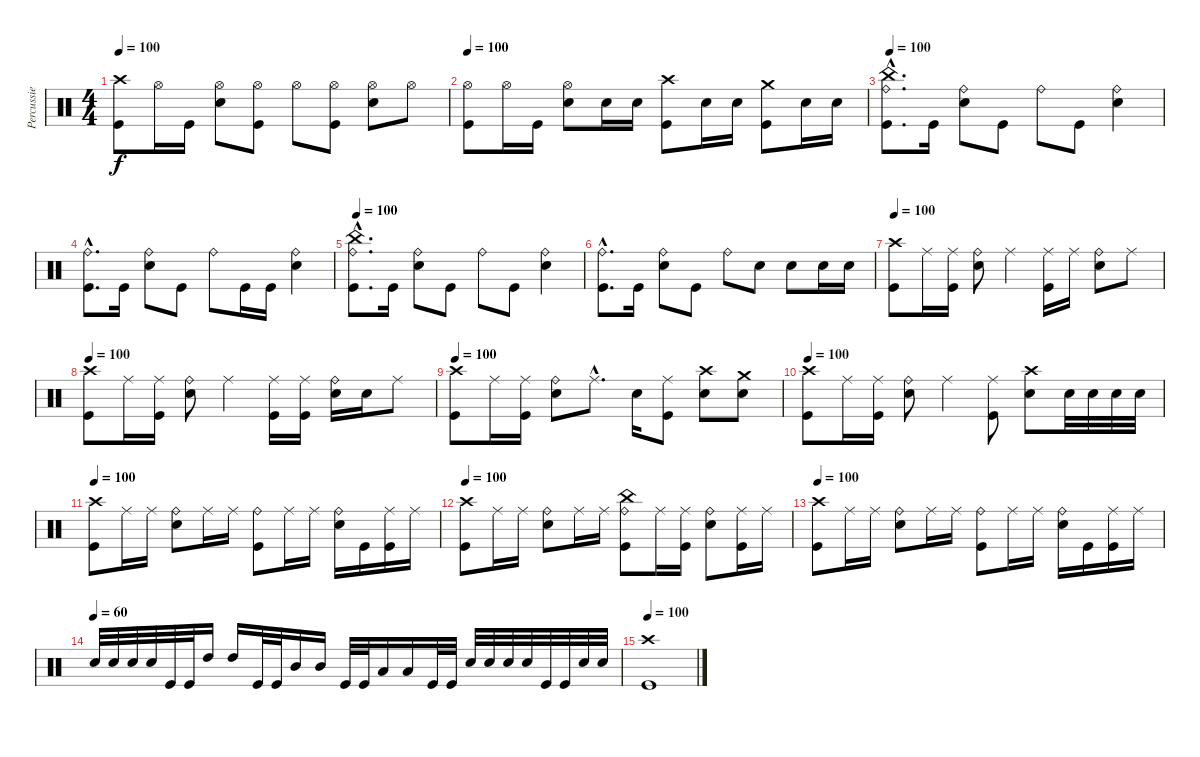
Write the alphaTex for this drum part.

\track ("Percussie" "Percussie") {instrument percussion}
\staff {score}
\articulation defaults
\ts (4 4)
\tempo 100
\clef neutral
\ks c
("Crash high (hit)" "Kick (hit)").8{dy f} "Hi-Hat (open)".16 "Kick (hit)".16 ("Hi-Hat (open)" "Snare (hit) 2").8 ("Hi-Hat (open)" "Kick (hit)").8 "Hi-Hat (open)".8 ("Hi-Hat (open)" "Kick (hit)").8 ("Hi-Hat (open)" "Snare (hit) 2").8 "Hi-Hat (open)".8 |
\tempo 100
("Hi-Hat (open)" "Kick (hit)").8 "Hi-Hat (open)".16 "Kick (hit)".16 ("Hi-Hat (open)" "Snare (hit) 2").8 "Snare (hit) 2".16 "Snare (hit) 2".16 ("Crash high (hit)" "Kick (hit)").8 "Snare (hit) 2".16 "Snare (hit) 2".16 ("Crash medium (hit)" "Kick (hit)").8 "Snare (hit) 2".16 "Snare (hit) 2".16 |
\tempo 100
("Ride (bell)"{hac} "China (hit)"{hac} "Kick (hit)"{hac}).8{d} "Kick (hit)".16 ("Ride (bell)" "Snare (hit) 2").8 "Kick (hit)".8 "Ride (bell)".8 "Kick (hit)".8 ("Ride (bell)" "Snare (hit) 2").4 |
("Ride (bell)"{hac} "Kick (hit)"{hac}).8{d} "Kick (hit)".16 ("Ride (bell)" "Snare (hit) 2").8 "Kick (hit)".8 "Ride (bell)".8 "Kick (hit)".16 "Kick (hit)".16 ("Ride (bell)" "Snare (hit) 2").4 |
\tempo 100
("Ride (bell)"{hac} "China (hit)"{hac} "Kick (hit)"{hac}).8{d} "Kick (hit)".16 ("Ride (bell)" "Snare (hit) 2").8 "Kick (hit)".8 "Ride (bell)".8 "Kick (hit)".8 ("Ride (bell)" "Snare (hit) 2").4 |
("Ride (bell)"{hac} "Kick (hit)"{hac}).8{d} "Kick (hit)".16 ("Ride (bell)" "Snare (hit) 2").8 "Kick (hit)".8 "Ride (bell)".8 "Snare (hit) 2".8 "Snare (hit) 2".8 "Snare (hit) 2".16 "Snare (hit) 2".16 |
\tempo 100
("Crash high (hit)" "Kick (hit)").8 "Ride (middle)".16 ("Ride (middle)" "Kick (hit)").16 ("Ride (bell)" "Snare (hit) 2").8 "Ride (middle)".4 ("Ride (middle)" "Kick (hit)").16 "Ride (middle)".16 ("Ride (bell)" "Snare (hit) 2").8 "Ride (middle)".8 |
\tempo 100
("Crash high (hit)" "Kick (hit)").8 "Ride (middle)".16 ("Ride (middle)" "Kick (hit)").16 ("Ride (bell)" "Snare (hit) 2").8 "Ride (middle)".4 ("Ride (middle)" "Kick (hit)").16 ("Ride (middle)" "Kick (hit)").16 ("Ride (bell)" "Snare (hit) 2").16 "Snare (hit) 2".16 "Ride (middle)".8 |
\tempo 100
("Crash high (hit)" "Kick (hit)").8 "Ride (middle)".16 ("Ride (middle)" "Kick (hit)").16 ("Ride (bell)" "Snare (hit) 2").8 "Ride (middle)"{hac}.8{d} "Snare (hit) 2".16 ("Ride (middle)" "Kick (hit)").8 ("Crash high (hit)" "Snare (hit) 2").8 ("Crash medium (hit)" "Snare (hit) 2").8 |
\tempo 100
("Crash high (hit)" "Kick (hit)").8 "Ride (middle)".16 ("Ride (middle)" "Kick (hit)").16 ("Ride (bell)" "Snare (hit) 2").8 "Ride (middle)".4 ("Ride (middle)" "Kick (hit)").8 ("Crash high (hit)" "Snare (hit) 2").8 "Snare (hit) 2".32 "Snare (hit) 2".32 "Snare (hit) 2".32 "Snare (hit) 2".32 |
\tempo 100
("Crash high (hit)" "Kick (hit)").8 "Ride (middle)".16 "Ride (middle)".16 ("Ride (bell)" "Snare (hit) 2").8 "Ride (middle)".16 "Ride (middle)".16 ("Ride (bell)" "Kick (hit)").8 "Ride (middle)".16 "Ride (middle)".16 ("Ride (bell)" "Snare (hit) 2").16 "Kick (hit)".16 ("Ride (middle)" "Kick (hit)").16 "Ride (middle)".16 |
\tempo 100
("Crash high (hit)" "Kick (hit)").8 "Ride (middle)".16 "Ride (middle)".16 ("Ride (bell)" "Snare (hit) 2").8 "Ride (middle)".16 "Ride (middle)".16 ("Ride (bell)" "China (hit)" "Kick (hit)").8 "Ride (middle)".16 ("Ride (middle)" "Kick (hit)").16 ("Ride (bell)" "Snare (hit) 2").8 ("Ride (middle)" "Kick (hit)").16 "Ride (middle)".16 |
\tempo 100
("Crash high (hit)" "Kick (hit)").8 "Ride (middle)".16 "Ride (middle)".16 ("Ride (bell)" "Snare (hit) 2").8 "Ride (middle)".16 "Ride (middle)".16 ("Ride (bell)" "Kick (hit)").8 "Ride (middle)".16 "Ride (middle)".16 ("Ride (bell)" "Snare (hit) 2").16 "Kick (hit)".16 ("Ride (middle)" "Kick (hit)").16 "Ride (middle)".16 |
\tempo (60)
"Snare (hit) 2".32 "Snare (hit) 2".32 "Snare (hit) 2".32 "Snare (hit) 2".32 "Kick (hit)".32 "Kick (hit)".32 "High Tom (hit)".16 "High Tom (hit)".16 "Kick (hit)".32 "Kick (hit)".32 "Mid Tom (hit)".16 "Mid Tom (hit)".16 "Kick (hit)".32 "Kick (hit)".32 "Low Tom (hit)".16 "Low Tom (hit)".16 "Kick (hit)".32 "Kick (hit)".32 "Snare (hit) 2".32 "Snare (hit) 2".32 "Snare (hit) 2".32 "Snare (hit) 2".32 "Kick (hit)".32 "Kick (hit)".32 "Snare (hit) 2".32 "Snare (hit) 2".32 |
\tempo 100
("Crash high (hit)" "Kick (hit)").1
